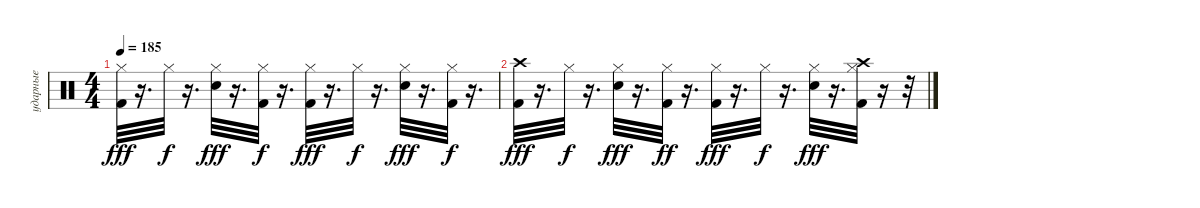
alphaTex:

\track ("ударные" "ударные") {instrument percussion}
\staff {score}
\articulation defaults
\ts (4 4)
\tempo 185
\clef neutral
\ks c
("Hi-Hat (closed)" "Kick (hit) 2").32{dy fff} r.16{d} "Hi-Hat (closed)".32{dy f} r.16{d} ("Hi-Hat (closed)" "Electric Snare (hit)").32{dy fff} r.16{d} ("Hi-Hat (closed)" "Kick (hit) 2").32{dy f} r.16{d} ("Hi-Hat (closed)" "Kick (hit) 2").32{dy fff} r.16{d} "Hi-Hat (closed)".32{dy f} r.16{d} ("Hi-Hat (closed)" "Electric Snare (hit)").32{dy fff} r.16{d} ("Hi-Hat (closed)" "Kick (hit) 2").32{dy f} r.16{d} |
("Crash high (hit)" "Kick (hit) 2").32{dy fff} r.16{d} "Hi-Hat (closed)".32{dy f} r.16{d} ("Hi-Hat (closed)" "Electric Snare (hit)").32{dy fff} r.16{d} ("Hi-Hat (closed)" "Kick (hit) 2").32{dy ff} r.16{d} ("Hi-Hat (closed)" "Kick (hit) 2").32{dy fff} r.16{d} "Hi-Hat (closed)".32{dy f} r.16{d} ("Hi-Hat (closed)" "Electric Snare (hit)").32{dy fff} r.16{d} ("Crash high (hit)" "Hi-Hat (closed)" "Kick (hit) 2").32 r.16 r.32
